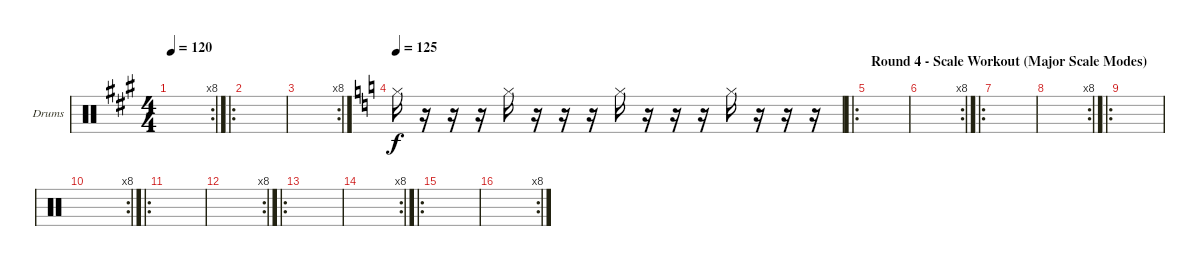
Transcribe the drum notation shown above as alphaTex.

\defaultSystemsLayout 4
\bracketExtendMode groupsimilarinstruments
\firstSystemTrackNameOrientation horizontal
\otherSystemsTrackNameOrientation horizontal
\track ("Drumkit" "Drums") {instrument percussion}
\staff {score}
\articulation defaults
\rc 8
\ts (4 4)
\tempo 120
\clef neutral
\scale
0.313433
\ks a
|
\ro
\scale
0.343284 |
\rc 8
\scale
0.271552 |
\tempo 125
\scale
0.431034
\ks c "Hi-Hat (closed)".16
r.16 r.16 r.16 "Hi-Hat (closed)".16 r.16 r.16 r.16 "Hi-Hat (closed)".16 r.16 r.16 r.16 "Hi-Hat (closed)".16 r.16 r.16 r.16 |
\ro
\section ("" "Round 4 - Scale Workout (Major Scale Modes)")
\tempo (125 hide)
\scale
0.297414 |
\rc 8
\scale
0.323077 |
\ro
\scale
0.353846 |
\rc 8
\scale
0.323077 |
\ro
\scale
0.343284 |
\rc 8
\scale
0.313433 |
\ro
\scale
0.343284 |
\rc 8
\scale
0.323077 |
\ro
\scale
0.353846 |
\rc 8
\scale
0.323077 |
\ro
\scale
0.343284 |
\rc 8
\scale
0.313433
